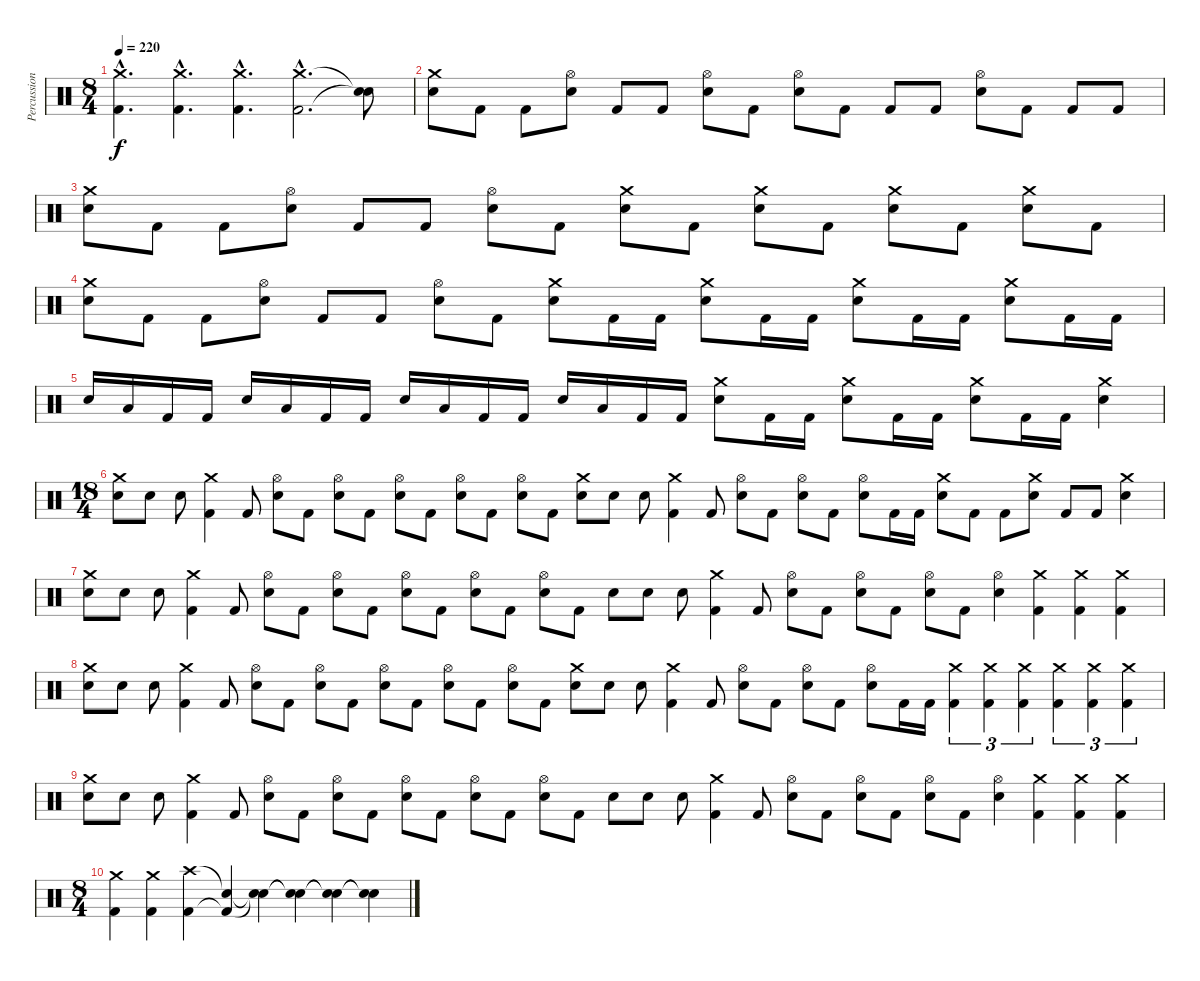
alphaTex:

\track ("Percussion" "Percussion") {instrument percussion}
\staff {score}
\articulation defaults
\ts (8 4)
\tempo 220
\clef neutral
\ks c
("Crash medium (hit)"{hac} "Kick (hit) 2"{hac}).4{d dy f} ("Crash medium (hit)"{hac} "Kick (hit) 2"{hac}).4{d} ("Crash medium (hit)"{hac} "Kick (hit) 2"{hac}).4{d} ("Crash medium (hit)"{hac} "Kick (hit) 2"{hac}).2{d} ("Snare (hit)"{t} "Snare (hit)"{t}).8 |
("Crash medium (hit)" "Electric Snare (hit)").8 "Kick (hit) 2".8 "Kick (hit) 2".8 ("Hi-Hat (open)" "Electric Snare (hit)").8 "Kick (hit) 2".8 "Kick (hit) 2".8 ("Hi-Hat (open)" "Electric Snare (hit)").8 "Kick (hit) 2".8 ("Hi-Hat (open)" "Electric Snare (hit)").8 "Kick (hit) 2".8 "Kick (hit) 2".8 "Kick (hit) 2".8 ("Hi-Hat (open)" "Electric Snare (hit)").8 "Kick (hit) 2".8 "Kick (hit) 2".8 "Kick (hit) 2".8 |
("Crash medium (hit)" "Electric Snare (hit)").8 "Kick (hit) 2".8 "Kick (hit) 2".8 ("Hi-Hat (open)" "Electric Snare (hit)").8 "Kick (hit) 2".8 "Kick (hit) 2".8 ("Hi-Hat (open)" "Electric Snare (hit)").8 "Kick (hit) 2".8 ("Crash medium (hit)" "Electric Snare (hit)").8 "Kick (hit) 2".8 ("Crash medium (hit)" "Electric Snare (hit)").8 "Kick (hit) 2".8 ("Crash medium (hit)" "Electric Snare (hit)").8 "Kick (hit) 2".8 ("Crash medium (hit)" "Electric Snare (hit)").8 "Kick (hit) 2".8 |
("Crash medium (hit)" "Electric Snare (hit)").8 "Kick (hit) 2".8 "Kick (hit) 2".8 ("Hi-Hat (open)" "Electric Snare (hit)").8 "Kick (hit) 2".8 "Kick (hit) 2".8 ("Hi-Hat (open)" "Electric Snare (hit)").8 "Kick (hit) 2".8 ("Crash medium (hit)" "Electric Snare (hit)").8 "Kick (hit) 2".16 "Kick (hit) 2".16 ("Crash medium (hit)" "Electric Snare (hit)").8 "Kick (hit) 2".16 "Kick (hit) 2".16 ("Crash medium (hit)" "Electric Snare (hit)").8 "Kick (hit) 2".16 "Kick (hit) 2".16 ("Crash medium (hit)" "Electric Snare (hit)").8 "Kick (hit) 2".16 "Kick (hit) 2".16 |
"Electric Snare (hit)".16 "Low Floor Tom (hit)".16 "Kick (hit) 2".16 "Kick (hit) 2".16 "Electric Snare (hit)".16 "Low Floor Tom (hit)".16 "Kick (hit) 2".16 "Kick (hit) 2".16 "Electric Snare (hit)".16 "Low Floor Tom (hit)".16 "Kick (hit) 2".16 "Kick (hit) 2".16 "Electric Snare (hit)".16 "Low Floor Tom (hit)".16 "Kick (hit) 2".16 "Kick (hit) 2".16 ("Crash medium (hit)" "Electric Snare (hit)").8 "Kick (hit) 2".16 "Kick (hit) 2".16 ("Crash medium (hit)" "Electric Snare (hit)").8 "Kick (hit) 2".16 "Kick (hit) 2".16 ("Crash medium (hit)" "Electric Snare (hit)").8 "Kick (hit) 2".16 "Kick (hit) 2".16 ("Crash medium (hit)" "Electric Snare (hit)").4 |
\ts (18 4)
("Crash medium (hit)" "Electric Snare (hit)").8 "Electric Snare (hit)".8 "Electric Snare (hit)".8 ("Crash medium (hit)" "Kick (hit) 2").4 "Kick (hit) 2".8 ("Hi-Hat (open)" "Electric Snare (hit)").8 "Kick (hit) 2".8 ("Hi-Hat (open)" "Electric Snare (hit)").8 "Kick (hit) 2".8 ("Hi-Hat (open)" "Electric Snare (hit)").8 "Kick (hit) 2".8 ("Hi-Hat (open)" "Electric Snare (hit)").8 "Kick (hit) 2".8 ("Hi-Hat (open)" "Electric Snare (hit)").8 "Kick (hit) 2".8 ("Crash medium (hit)" "Electric Snare (hit)").8 "Electric Snare (hit)".8 "Electric Snare (hit)".8 ("Crash medium (hit)" "Kick (hit) 2").4 "Kick (hit) 2".8 ("Hi-Hat (open)" "Electric Snare (hit)").8 "Kick (hit) 2".8 ("Hi-Hat (open)" "Electric Snare (hit)").8 "Kick (hit) 2".8 ("Hi-Hat (open)" "Electric Snare (hit)").8 "Kick (hit) 2".16 "Kick (hit) 2".16 ("Crash medium (hit)" "Electric Snare (hit)").8 "Kick (hit) 2".8 "Kick (hit) 2".8 ("Crash medium (hit)" "Electric Snare (hit)").8 "Kick (hit) 2".8 "Kick (hit) 2".8 ("Crash medium (hit)" "Electric Snare (hit)").4 |
("Crash medium (hit)" "Electric Snare (hit)").8 "Electric Snare (hit)".8 "Electric Snare (hit)".8 ("Crash medium (hit)" "Kick (hit) 2").4 "Kick (hit) 2".8 ("Hi-Hat (open)" "Electric Snare (hit)").8 "Kick (hit) 2".8 ("Hi-Hat (open)" "Electric Snare (hit)").8 "Kick (hit) 2".8 ("Hi-Hat (open)" "Electric Snare (hit)").8 "Kick (hit) 2".8 ("Hi-Hat (open)" "Electric Snare (hit)").8 "Kick (hit) 2".8 ("Hi-Hat (open)" "Electric Snare (hit)").8 "Kick (hit) 2".8 "Electric Snare (hit)".8 "Electric Snare (hit)".8 "Electric Snare (hit)".8 ("Crash medium (hit)" "Kick (hit) 2").4 "Kick (hit) 2".8 ("Hi-Hat (open)" "Electric Snare (hit)").8 "Kick (hit) 2".8 ("Hi-Hat (open)" "Electric Snare (hit)").8 "Kick (hit) 2".8 ("Hi-Hat (open)" "Electric Snare (hit)").8 "Kick (hit) 2".8 ("Hi-Hat (open)" "Electric Snare (hit)").4 ("Crash medium (hit)" "Kick (hit) 2").4 ("Crash medium (hit)" "Kick (hit) 2").4 ("Crash medium (hit)" "Kick (hit) 2").4 |
("Crash medium (hit)" "Electric Snare (hit)").8 "Electric Snare (hit)".8 "Electric Snare (hit)".8 ("Crash medium (hit)" "Kick (hit) 2").4 "Kick (hit) 2".8 ("Hi-Hat (open)" "Electric Snare (hit)").8 "Kick (hit) 2".8 ("Hi-Hat (open)" "Electric Snare (hit)").8 "Kick (hit) 2".8 ("Hi-Hat (open)" "Electric Snare (hit)").8 "Kick (hit) 2".8 ("Hi-Hat (open)" "Electric Snare (hit)").8 "Kick (hit) 2".8 ("Hi-Hat (open)" "Electric Snare (hit)").8 "Kick (hit) 2".8 ("Crash medium (hit)" "Electric Snare (hit)").8 "Electric Snare (hit)".8 "Electric Snare (hit)".8 ("Crash medium (hit)" "Kick (hit) 2").4 "Kick (hit) 2".8 ("Hi-Hat (open)" "Electric Snare (hit)").8 "Kick (hit) 2".8 ("Hi-Hat (open)" "Electric Snare (hit)").8 "Kick (hit) 2".8 ("Hi-Hat (open)" "Electric Snare (hit)").8 "Kick (hit) 2".16 "Kick (hit) 2".16 ("Crash medium (hit)" "Kick (hit) 2").4{tu (3 2)} ("Crash medium (hit)" "Kick (hit) 2").4{tu (3 2)} ("Crash medium (hit)" "Kick (hit) 2").4{tu (3 2)} ("Crash medium (hit)" "Kick (hit) 2").4{tu (3 2)} ("Crash medium (hit)" "Kick (hit) 2").4{tu (3 2)} ("Crash medium (hit)" "Kick (hit) 2").4{tu (3 2)} |
("Crash medium (hit)" "Electric Snare (hit)").8 "Electric Snare (hit)".8 "Electric Snare (hit)".8 ("Crash medium (hit)" "Kick (hit) 2").4 "Kick (hit) 2".8 ("Hi-Hat (open)" "Electric Snare (hit)").8 "Kick (hit) 2".8 ("Hi-Hat (open)" "Electric Snare (hit)").8 "Kick (hit) 2".8 ("Hi-Hat (open)" "Electric Snare (hit)").8 "Kick (hit) 2".8 ("Hi-Hat (open)" "Electric Snare (hit)").8 "Kick (hit) 2".8 ("Hi-Hat (open)" "Electric Snare (hit)").8 "Kick (hit) 2".8 "Electric Snare (hit)".8 "Electric Snare (hit)".8 "Electric Snare (hit)".8 ("Crash medium (hit)" "Kick (hit) 2").4 "Kick (hit) 2".8 ("Hi-Hat (open)" "Electric Snare (hit)").8 "Kick (hit) 2".8 ("Hi-Hat (open)" "Electric Snare (hit)").8 "Kick (hit) 2".8 ("Hi-Hat (open)" "Electric Snare (hit)").8 "Kick (hit) 2".8 ("Hi-Hat (open)" "Electric Snare (hit)").4 ("Crash medium (hit)" "Kick (hit) 2").4 ("Crash medium (hit)" "Kick (hit) 2").4 ("Crash medium (hit)" "Kick (hit) 2").4 |
\ts (8 4)
("Crash medium (hit)" "Kick (hit) 2").4 ("Crash medium (hit)" "Kick (hit) 2").4 ("Crash high (hit)" "Kick (hit) 2").4 ("Snare (hit)"{t} "Kick (hit) 2"{t}).4 ("Snare (hit)"{t} "Snare (hit)"{t}).4 ("Snare (hit)"{t} "Snare (hit)"{t}).4 ("Snare (hit)"{t} "Snare (hit)"{t}).4 ("Snare (hit)"{t} "Snare (hit)"{t}).4
